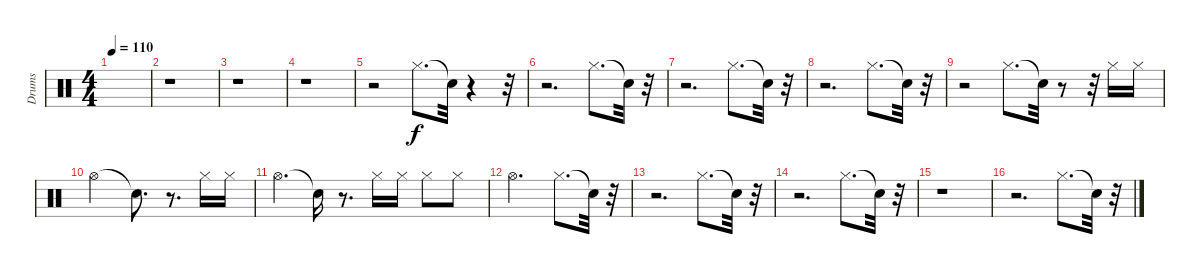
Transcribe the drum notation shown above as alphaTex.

\track ("Drums" "Drums") {instrument percussion}
\staff {score}
\articulation defaults
\ts (4 4)
\tempo 110
\clef neutral
\ks c
|
r.1 |
r.1 |
r.1 |
r.2 "Hi-Hat (closed)".8{d} "Snare (hit)"{t}.32 r.4 r.32 |
r.2{d} "Hi-Hat (closed)".8{d} "Snare (hit)"{t}.32 r.32 |
r.2{d} "Hi-Hat (closed)".8{d} "Snare (hit)"{t}.32 r.32 |
r.2{d} "Hi-Hat (closed)".8{d} "Snare (hit)"{t}.32 r.32 |
r.2 "Hi-Hat (closed)".8{d} "Snare (hit)"{t}.32 r.8 r.32 "Hi-Hat (closed)".16 "Hi-Hat (closed)".16 |
"Hi-Hat (open)".2 "Snare (hit)"{t}.8{d} r.8{d} "Hi-Hat (closed)".16 "Hi-Hat (closed)".16 |
"Hi-Hat (open)".4{d} "Snare (hit)"{t}.16 r.8{d} "Hi-Hat (closed)".16 "Hi-Hat (closed)".16 "Hi-Hat (closed)".8 "Hi-Hat (closed)".8 |
"Hi-Hat (open)".2{d} "Hi-Hat (closed)".8{d} "Snare (hit)"{t}.32 r.32 |
r.2{d} "Hi-Hat (closed)".8{d} "Snare (hit)"{t}.32 r.32 |
r.2{d} "Hi-Hat (closed)".8{d} "Snare (hit)"{t}.32 r.32 |
r.1 |
r.2{d} "Hi-Hat (closed)".8{d} "Snare (hit)"{t}.32 r.32
